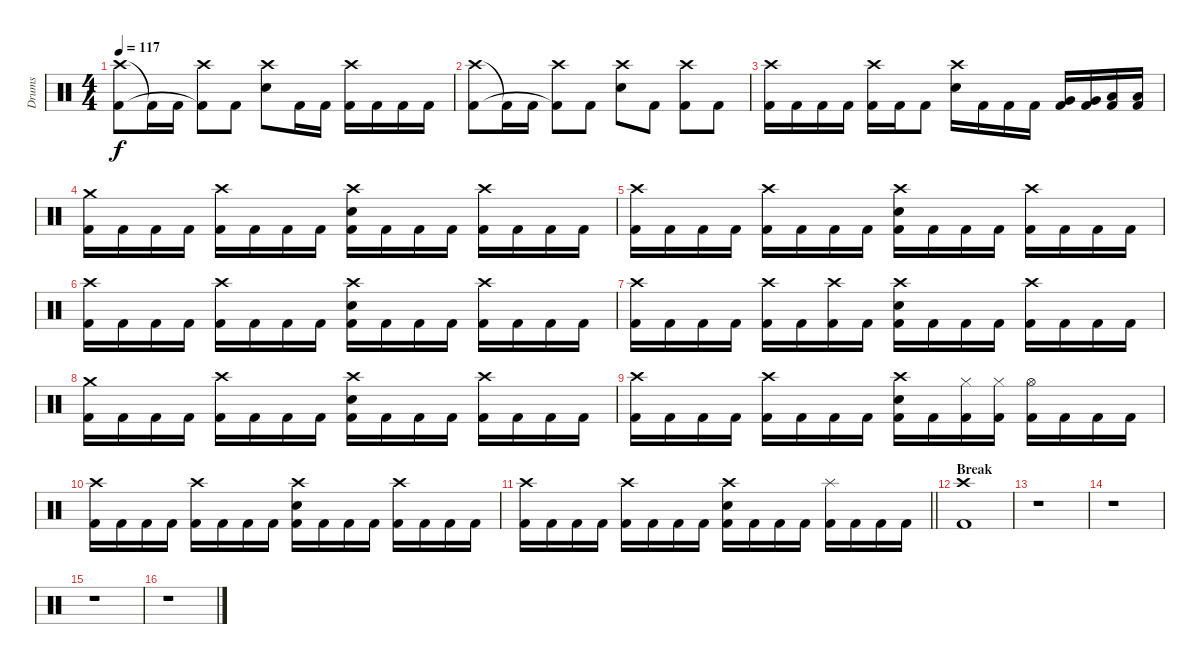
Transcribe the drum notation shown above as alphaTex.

\track ("Drums" "Drums") {instrument percussion}
\staff {score}
\articulation defaults
\ts (4 4)
\tempo 117
\clef neutral
\ks c
("Crash high (hit)" "Kick (hit) 2").8{dy f} "Kick (hit) 2"{t}.16 "Kick (hit) 2".16 ("Crash high (hit)" "Kick (hit) 2"{t}).8 "Kick (hit) 2".8 ("Crash high (hit)" "Electric Snare (hit)").8 "Kick (hit) 2".16 "Kick (hit) 2".16 ("Crash high (hit)" "Kick (hit) 2").16 "Kick (hit) 2".16 "Kick (hit) 2".16 "Kick (hit) 2".16 |
("Crash high (hit)" "Kick (hit) 2").8 "Kick (hit) 2"{t}.16 "Kick (hit) 2".16 ("Crash high (hit)" "Kick (hit) 2"{t}).8 "Kick (hit) 2".8 ("Crash high (hit)" "Electric Snare (hit)").8 "Kick (hit) 2".8 ("Crash high (hit)" "Kick (hit) 2").8 "Kick (hit) 2".8 |
("Crash high (hit)" "Kick (hit) 2").16 "Kick (hit) 2".16 "Kick (hit) 2".16 "Kick (hit) 2".16 ("Crash high (hit)" "Kick (hit) 2").16 "Kick (hit) 2".16 "Kick (hit) 2".8 ("Crash high (hit)" "Electric Snare (hit)").16 "Kick (hit) 2".16 "Kick (hit) 2".16 "Kick (hit) 2".16 ("Very Low Tom (hit)" "Kick (hit) 2").16 ("Very Low Tom (hit)" "Kick (hit) 2").16 ("Low Floor Tom (hit)" "Kick (hit) 2").16 ("Low Floor Tom (hit)" "Kick (hit) 2").16 |
("Crash medium (hit)" "Kick (hit) 2").16 "Kick (hit) 2".16 "Kick (hit) 2".16 "Kick (hit) 2".16 ("Crash high (hit)" "Kick (hit) 2").16 "Kick (hit) 2".16 "Kick (hit) 2".16 "Kick (hit) 2".16 ("Crash high (hit)" "Electric Snare (hit)" "Kick (hit) 2").16 "Kick (hit) 2".16 "Kick (hit) 2".16 "Kick (hit) 2".16 ("Crash high (hit)" "Kick (hit) 2").16 "Kick (hit) 2".16 "Kick (hit) 2".16 "Kick (hit) 2".16 |
("Crash high (hit)" "Kick (hit) 2").16 "Kick (hit) 2".16 "Kick (hit) 2".16 "Kick (hit) 2".16 ("Crash high (hit)" "Kick (hit) 2").16 "Kick (hit) 2".16 "Kick (hit) 2".16 "Kick (hit) 2".16 ("Crash high (hit)" "Electric Snare (hit)" "Kick (hit) 2").16 "Kick (hit) 2".16 "Kick (hit) 2".16 "Kick (hit) 2".16 ("Crash high (hit)" "Kick (hit) 2").16 "Kick (hit) 2".16 "Kick (hit) 2".16 "Kick (hit) 2".16 |
("Crash high (hit)" "Kick (hit) 2").16 "Kick (hit) 2".16 "Kick (hit) 2".16 "Kick (hit) 2".16 ("Crash high (hit)" "Kick (hit) 2").16 "Kick (hit) 2".16 "Kick (hit) 2".16 "Kick (hit) 2".16 ("Crash high (hit)" "Electric Snare (hit)" "Kick (hit) 2").16 "Kick (hit) 2".16 "Kick (hit) 2".16 "Kick (hit) 2".16 ("Crash high (hit)" "Kick (hit) 2").16 "Kick (hit) 2".16 "Kick (hit) 2".16 "Kick (hit) 2".16 |
("Crash high (hit)" "Kick (hit) 2").16 "Kick (hit) 2".16 "Kick (hit) 2".16 "Kick (hit) 2".16 ("Crash high (hit)" "Kick (hit) 2").16 "Kick (hit) 2".16 ("Crash high (hit)" "Kick (hit) 2").16 "Kick (hit) 2".16 ("Crash high (hit)" "Electric Snare (hit)" "Kick (hit) 2").16 "Kick (hit) 2".16 "Kick (hit) 2".16 "Kick (hit) 2".16 ("Crash high (hit)" "Kick (hit) 2").16 "Kick (hit) 2".16 "Kick (hit) 2".16 "Kick (hit) 2".16 |
("Crash medium (hit)" "Kick (hit) 2").16 "Kick (hit) 2".16 "Kick (hit) 2".16 "Kick (hit) 2".16 ("Crash high (hit)" "Kick (hit) 2").16 "Kick (hit) 2".16 "Kick (hit) 2".16 "Kick (hit) 2".16 ("Crash high (hit)" "Electric Snare (hit)" "Kick (hit) 2").16 "Kick (hit) 2".16 "Kick (hit) 2".16 "Kick (hit) 2".16 ("Crash high (hit)" "Kick (hit) 2").16 "Kick (hit) 2".16 "Kick (hit) 2".16 "Kick (hit) 2".16 |
("Crash high (hit)" "Kick (hit) 2").16 "Kick (hit) 2".16 "Kick (hit) 2".16 "Kick (hit) 2".16 ("Crash high (hit)" "Kick (hit) 2").16 "Kick (hit) 2".16 "Kick (hit) 2".16 "Kick (hit) 2".16 ("Crash high (hit)" "Electric Snare (hit)" "Kick (hit) 2").16 "Kick (hit) 2".16 ("Hi-Hat (closed)" "Kick (hit) 2").16 ("Hi-Hat (closed)" "Kick (hit) 2").16 ("Hi-Hat (open)" "Kick (hit) 2").16 "Kick (hit) 2".16 "Kick (hit) 2".16 "Kick (hit) 2".16 |
("Crash high (hit)" "Kick (hit) 2").16 "Kick (hit) 2".16 "Kick (hit) 2".16 "Kick (hit) 2".16 ("Crash high (hit)" "Kick (hit) 2").16 "Kick (hit) 2".16 "Kick (hit) 2".16 "Kick (hit) 2".16 ("Crash high (hit)" "Electric Snare (hit)" "Kick (hit) 2").16 "Kick (hit) 2".16 "Kick (hit) 2".16 "Kick (hit) 2".16 ("Crash high (hit)" "Kick (hit) 2").16 "Kick (hit) 2".16 "Kick (hit) 2".16 "Kick (hit) 2".16 |
\barLineRight lightlight
("Crash high (hit)" "Kick (hit) 2").16 "Kick (hit) 2".16 "Kick (hit) 2".16 "Kick (hit) 2".16 ("Crash high (hit)" "Kick (hit) 2").16 "Kick (hit) 2".16 "Kick (hit) 2".16 "Kick (hit) 2".16 ("Crash high (hit)" "Electric Snare (hit)" "Kick (hit) 2").16 "Kick (hit) 2".16 "Kick (hit) 2".16 "Kick (hit) 2".16 ("Splash (hit)" "Kick (hit) 2").16 "Kick (hit) 2".16 "Kick (hit) 2".16 "Kick (hit) 2".16 |
\section ("" "Break")
("Crash high (hit)" "Kick (hit) 2").1 |
r.1 |
r.1 |
r.1 |
r.1
